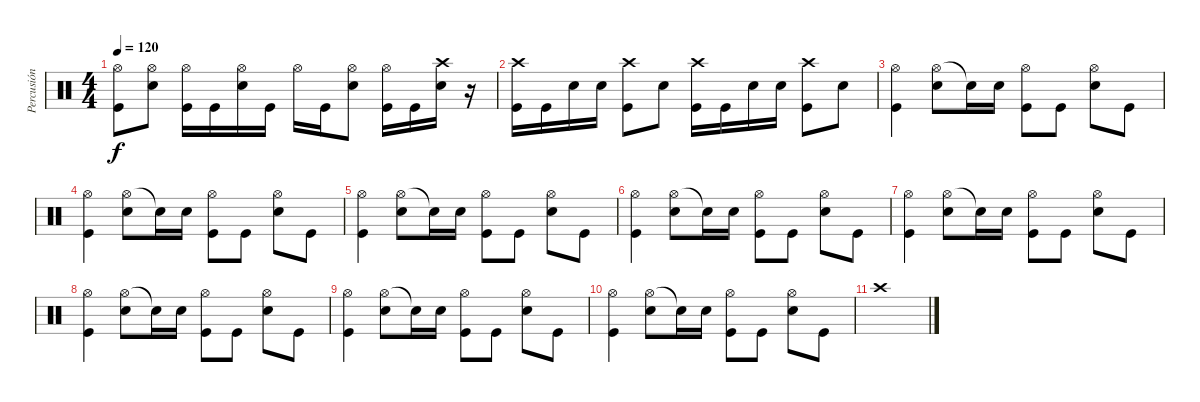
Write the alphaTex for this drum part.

\track ("Percusión" "Percusión") {instrument percussion}
\staff {score}
\articulation defaults
\ts (4 4)
\tempo 120
\clef neutral
\ks c
("Hi-Hat (open)" "Kick (hit)").8{dy f} ("Hi-Hat (open)" "Snare (hit) 2").8 ("Hi-Hat (open)" "Kick (hit)").16 "Kick (hit)".16 ("Hi-Hat (open)" "Snare (hit) 2").16 "Kick (hit)".16 "Hi-Hat (open)".16 "Kick (hit)".16 ("Hi-Hat (open)" "Snare (hit) 2").8 ("Hi-Hat (open)" "Kick (hit)").16 "Kick (hit)".16 ("Crash high (hit)" "Snare (hit) 2").16 r.16 |
("Crash high (hit)" "Kick (hit)").16 "Kick (hit)".16 "Snare (hit) 2".16 "Snare (hit) 2".16 ("Crash high (hit)" "Kick (hit)").8 "Snare (hit) 2".8 ("Crash high (hit)" "Kick (hit)").16 "Kick (hit)".16 "Snare (hit) 2".16 "Snare (hit) 2".16 ("Crash high (hit)" "Kick (hit)").8 "Snare (hit) 2".8 |
("Hi-Hat (open)" "Kick (hit)").4 ("Hi-Hat (open)" "Snare (hit) 2").8 "Snare (hit) 2"{t}.16 "Snare (hit) 2".16 ("Hi-Hat (open)" "Kick (hit)").8 "Kick (hit)".8 ("Hi-Hat (open)" "Snare (hit) 2").8 "Kick (hit)".8 |
("Hi-Hat (open)" "Kick (hit)").4 ("Hi-Hat (open)" "Snare (hit) 2").8 "Snare (hit) 2"{t}.16 "Snare (hit) 2".16 ("Hi-Hat (open)" "Kick (hit)").8 "Kick (hit)".8 ("Hi-Hat (open)" "Snare (hit) 2").8 "Kick (hit)".8 |
("Hi-Hat (open)" "Kick (hit)").4 ("Hi-Hat (open)" "Snare (hit) 2").8 "Snare (hit) 2"{t}.16 "Snare (hit) 2".16 ("Hi-Hat (open)" "Kick (hit)").8 "Kick (hit)".8 ("Hi-Hat (open)" "Snare (hit) 2").8 "Kick (hit)".8 |
("Hi-Hat (open)" "Kick (hit)").4 ("Hi-Hat (open)" "Snare (hit) 2").8 "Snare (hit) 2"{t}.16 "Snare (hit) 2".16 ("Hi-Hat (open)" "Kick (hit)").8 "Kick (hit)".8 ("Hi-Hat (open)" "Snare (hit) 2").8 "Kick (hit)".8 |
("Hi-Hat (open)" "Kick (hit)").4 ("Hi-Hat (open)" "Snare (hit) 2").8 "Snare (hit) 2"{t}.16 "Snare (hit) 2".16 ("Hi-Hat (open)" "Kick (hit)").8 "Kick (hit)".8 ("Hi-Hat (open)" "Snare (hit) 2").8 "Kick (hit)".8 |
("Hi-Hat (open)" "Kick (hit)").4 ("Hi-Hat (open)" "Snare (hit) 2").8 "Snare (hit) 2"{t}.16 "Snare (hit) 2".16 ("Hi-Hat (open)" "Kick (hit)").8 "Kick (hit)".8 ("Hi-Hat (open)" "Snare (hit) 2").8 "Kick (hit)".8 |
("Hi-Hat (open)" "Kick (hit)").4 ("Hi-Hat (open)" "Snare (hit) 2").8 "Snare (hit) 2"{t}.16 "Snare (hit) 2".16 ("Hi-Hat (open)" "Kick (hit)").8 "Kick (hit)".8 ("Hi-Hat (open)" "Snare (hit) 2").8 "Kick (hit)".8 |
("Hi-Hat (open)" "Kick (hit)").4 ("Hi-Hat (open)" "Snare (hit) 2").8 "Snare (hit) 2"{t}.16 "Snare (hit) 2".16 ("Hi-Hat (open)" "Kick (hit)").8 "Kick (hit)".8 ("Hi-Hat (open)" "Snare (hit) 2").8 "Kick (hit)".8 |
"Crash high (hit)".1
